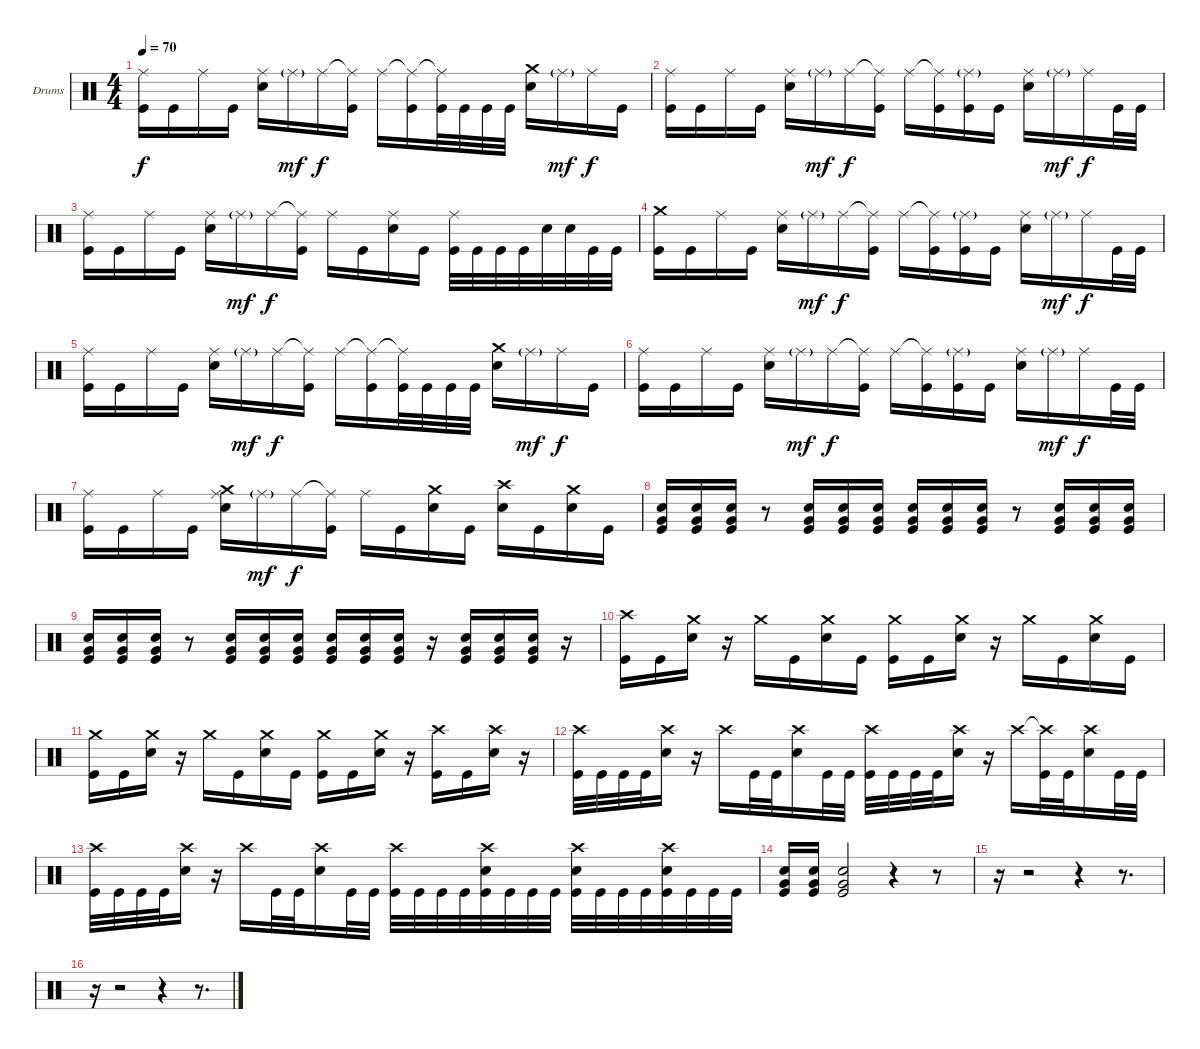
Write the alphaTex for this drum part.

\bracketExtendMode groupsimilarinstruments
\firstSystemTrackNameOrientation horizontal
\otherSystemsTrackNameOrientation horizontal
\track ("Drumkit" "Drums") {instrument percussion}
\staff {score}
\articulation defaults
\ts (4 4)
\tempo 70
\clef neutral
\ks c
("Ride (middle)" "Kick (hit)").16{dy f} "Kick (hit)".16 "Ride (middle)".16 "Kick (hit)".16 ("Ride (middle)" "Snare (hit) 2").16 "Ride (middle)"{g}.16{dy mf} "Ride (middle)".16{dy f} ("Ride (middle)"{t} "Kick (hit)").16 "Ride (middle)".16 ("Ride (middle)"{t} "Kick (hit)").16 ("Ride (middle)"{t} "Kick (hit)").32 "Kick (hit)".32 "Kick (hit)".32 "Kick (hit)".32 ("Crash medium (hit)" "Snare (hit) 2").16 "Ride (middle)"{g}.16{dy mf} "Ride (middle)".16{dy f} "Kick (hit)".16 |
("Ride (middle)" "Kick (hit)").16 "Kick (hit)".16 "Ride (middle)".16 "Kick (hit)".16 ("Ride (middle)" "Snare (hit) 2").16 "Ride (middle)"{g}.16{dy mf} "Ride (middle)".16{dy f} ("Ride (middle)"{t} "Kick (hit)").16 "Ride (middle)".16 ("Ride (middle)"{t} "Kick (hit)").16 ("Ride (middle)"{g} "Kick (hit)").16 "Kick (hit)".16 ("Ride (middle)" "Snare (hit) 2").16 "Ride (middle)"{g}.16{dy mf} "Ride (middle)".16{dy f} "Kick (hit)".32 "Kick (hit)".32 |
("Ride (middle)" "Kick (hit)").16 "Kick (hit)".16 "Ride (middle)".16 "Kick (hit)".16 ("Ride (middle)" "Snare (hit) 2").16 "Ride (middle)"{g}.16{dy mf} "Ride (middle)".16{dy f} ("Ride (middle)"{t} "Kick (hit)").16 "Ride (middle)".16 "Kick (hit)".16 ("Ride (middle)" "Snare (hit) 2").16 "Kick (hit)".16 ("Ride (middle)" "Kick (hit)").32 "Kick (hit)".32 "Kick (hit)".32 "Kick (hit)".32 "Snare (hit) 2".32 "Snare (hit) 2".32 "Kick (hit)".32 "Kick (hit)".32 |
("Crash medium (hit)" "Kick (hit)").16 "Kick (hit)".16 "Ride (middle)".16 "Kick (hit)".16 ("Ride (middle)" "Snare (hit) 2").16 "Ride (middle)"{g}.16{dy mf} "Ride (middle)".16{dy f} ("Ride (middle)"{t} "Kick (hit)").16 "Ride (middle)".16 ("Ride (middle)"{t} "Kick (hit)").16 ("Ride (middle)"{g} "Kick (hit)").16 "Kick (hit)".16 ("Ride (middle)" "Snare (hit) 2").16 "Ride (middle)"{g}.16{dy mf} "Ride (middle)".16{dy f} "Kick (hit)".32 "Kick (hit)".32 |
("Ride (middle)" "Kick (hit)").16 "Kick (hit)".16 "Ride (middle)".16 "Kick (hit)".16 ("Ride (middle)" "Snare (hit) 2").16 "Ride (middle)"{g}.16{dy mf} "Ride (middle)".16{dy f} ("Ride (middle)"{t} "Kick (hit)").16 "Ride (middle)".16 ("Ride (middle)"{t} "Kick (hit)").16 ("Ride (middle)"{t} "Kick (hit)").32 "Kick (hit)".32 "Kick (hit)".32 "Kick (hit)".32 ("Crash medium (hit)" "Snare (hit) 2").16 "Ride (middle)"{g}.16{dy mf} "Ride (middle)".16{dy f} "Kick (hit)".16 |
("Ride (middle)" "Kick (hit)").16 "Kick (hit)".16 "Ride (middle)".16 "Kick (hit)".16 ("Ride (middle)" "Snare (hit) 2").16 "Ride (middle)"{g}.16{dy mf} "Ride (middle)".16{dy f} ("Ride (middle)"{t} "Kick (hit)").16 "Ride (middle)".16 ("Ride (middle)"{t} "Kick (hit)").16 ("Ride (middle)"{g} "Kick (hit)").16 "Kick (hit)".16 ("Ride (middle)" "Snare (hit) 2").16 "Ride (middle)"{g}.16{dy mf} "Ride (middle)".16{dy f} "Kick (hit)".32 "Kick (hit)".32 |
("Ride (middle)" "Kick (hit)").16 "Kick (hit)".16 "Ride (middle)".16 "Kick (hit)".16 ("Crash medium (hit)" "Ride (middle)" "Snare (hit) 2").16 "Ride (middle)"{g}.16{dy mf} "Ride (middle)".16{dy f} ("Ride (middle)"{t} "Kick (hit)").16 "Ride (middle)".16 "Kick (hit)".16 ("Crash medium (hit)" "Snare (hit) 2").16 "Kick (hit)".16 ("Crash high (hit)" "Snare (hit) 2").16 "Kick (hit)".16 ("Crash medium (hit)" "Snare (hit) 2").16 "Kick (hit)".16 |
("Snare (hit) 2" "Very Low Tom (hit)" "Kick (hit)").16 ("Snare (hit) 2" "Very Low Tom (hit)" "Kick (hit)").16 ("Snare (hit) 2" "Very Low Tom (hit)" "Kick (hit)").16 r.8 ("Snare (hit) 2" "Very Low Tom (hit)" "Kick (hit)").16 ("Snare (hit) 2" "Very Low Tom (hit)" "Kick (hit)").16 ("Snare (hit) 2" "Very Low Tom (hit)" "Kick (hit)").16 ("Snare (hit) 2" "Very Low Tom (hit)" "Kick (hit)").16 ("Snare (hit) 2" "Very Low Tom (hit)" "Kick (hit)").16 ("Snare (hit) 2" "Very Low Tom (hit)" "Kick (hit)").16 r.8 ("Snare (hit) 2" "Very Low Tom (hit)" "Kick (hit)").16 ("Snare (hit) 2" "Very Low Tom (hit)" "Kick (hit)").16 ("Snare (hit) 2" "Very Low Tom (hit)" "Kick (hit)").16 |
("Snare (hit) 2" "Very Low Tom (hit)" "Kick (hit)").16 ("Snare (hit) 2" "Very Low Tom (hit)" "Kick (hit)").16 ("Snare (hit) 2" "Very Low Tom (hit)" "Kick (hit)").16 r.8 ("Snare (hit) 2" "Very Low Tom (hit)" "Kick (hit)").16 ("Snare (hit) 2" "Very Low Tom (hit)" "Kick (hit)").16 ("Snare (hit) 2" "Very Low Tom (hit)" "Kick (hit)").16 ("Snare (hit) 2" "Very Low Tom (hit)" "Kick (hit)").16 ("Snare (hit) 2" "Very Low Tom (hit)" "Kick (hit)").16 ("Snare (hit) 2" "Very Low Tom (hit)" "Kick (hit)").16 r.16 ("Snare (hit) 2" "Very Low Tom (hit)" "Kick (hit)").16 ("Snare (hit) 2" "Very Low Tom (hit)" "Kick (hit)").16 ("Snare (hit) 2" "Very Low Tom (hit)" "Kick (hit)").16 r.16 |
("Crash high (hit)" "Kick (hit)").16 "Kick (hit)".16 ("Crash medium (hit)" "Snare (hit) 2").16 r.16 "Crash medium (hit)".16 "Kick (hit)".16 ("Crash medium (hit)" "Snare (hit) 2").16 "Kick (hit)".16 ("Crash medium (hit)" "Kick (hit)").16 "Kick (hit)".16 ("Crash medium (hit)" "Snare (hit) 2").16 r.16 "Crash medium (hit)".16 "Kick (hit)".16 ("Crash medium (hit)" "Snare (hit) 2").16 "Kick (hit)".16 |
("Crash medium (hit)" "Kick (hit)").16 "Kick (hit)".16 ("Crash medium (hit)" "Snare (hit) 2").16 r.16 "Crash medium (hit)".16 "Kick (hit)".16 ("Crash medium (hit)" "Snare (hit) 2").16 "Kick (hit)".16 ("Crash medium (hit)" "Kick (hit)").16 "Kick (hit)".16 ("Crash medium (hit)" "Snare (hit) 2").16 r.16 ("Crash high (hit)" "Kick (hit)").16 "Kick (hit)".16 ("Crash high (hit)" "Snare (hit) 2").16 r.16 |
("Crash high (hit)" "Kick (hit)").32 "Kick (hit)".32 "Kick (hit)".32 "Kick (hit)".32 ("Crash high (hit)" "Snare (hit) 2").16 r.16 "Crash high (hit)".16 "Kick (hit)".32 "Kick (hit)".32 ("Crash high (hit)" "Snare (hit) 2").16 "Kick (hit)".32 "Kick (hit)".32 ("Crash high (hit)" "Kick (hit)").32 "Kick (hit)".32 "Kick (hit)".32 "Kick (hit)".32 ("Crash high (hit)" "Snare (hit) 2").16 r.16 "Crash high (hit)".16 ("Crash high (hit)"{t} "Kick (hit)").32 "Kick (hit)".32 ("Crash high (hit)" "Snare (hit) 2").16 "Kick (hit)".32 "Kick (hit)".32 |
("Crash high (hit)" "Kick (hit)").32 "Kick (hit)".32 "Kick (hit)".32 "Kick (hit)".32 ("Crash high (hit)" "Snare (hit) 2").16 r.16 "Crash high (hit)".16 "Kick (hit)".32 "Kick (hit)".32 ("Crash high (hit)" "Snare (hit) 2").16 "Kick (hit)".32 "Kick (hit)".32 ("Crash high (hit)" "Kick (hit)").32 "Kick (hit)".32 "Kick (hit)".32 "Kick (hit)".32 ("Crash high (hit)" "Snare (hit) 2" "Kick (hit)").32 "Kick (hit)".32 "Kick (hit)".32 "Kick (hit)".32 ("Crash high (hit)" "Snare (hit) 2" "Kick (hit)").32 "Kick (hit)".32 "Kick (hit)".32 "Kick (hit)".32 ("Crash high (hit)" "Snare (hit) 2" "Kick (hit)").32 "Kick (hit)".32 "Kick (hit)".32 "Kick (hit)".32 |
("Snare (hit) 2" "Very Low Tom (hit)" "Kick (hit)").16 ("Snare (hit) 2" "Very Low Tom (hit)" "Kick (hit)").16 ("Snare (hit) 2" "Very Low Tom (hit)" "Kick (hit)").2 r.4 r.8 |
r.16 r.2 r.4 r.8{d} |
r.16 r.2 r.4 r.8{d}
